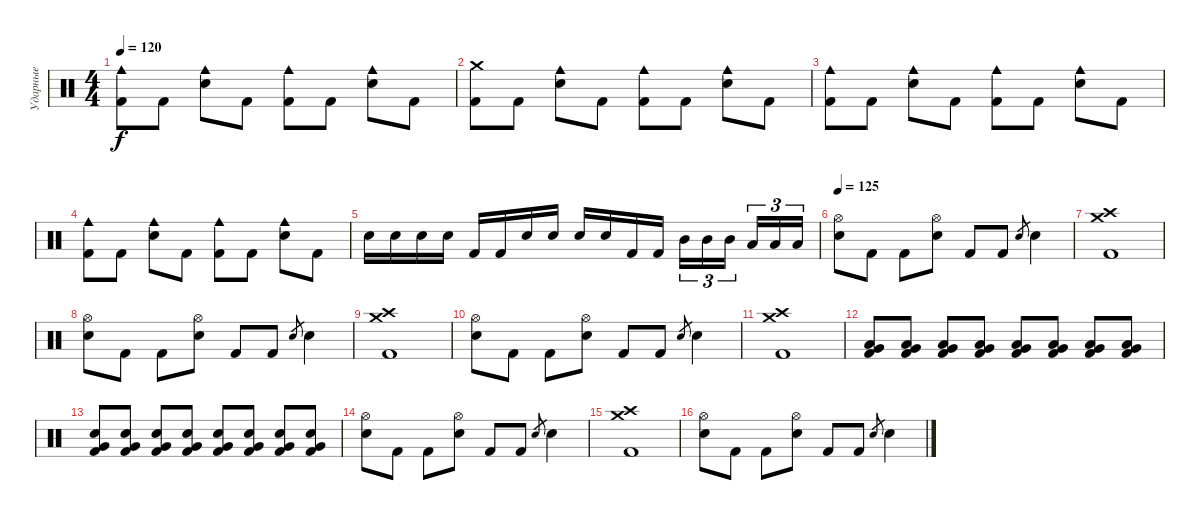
\track ("Ударные" "Ударные") {instrument percussion}
\staff {score}
\articulation defaults
\ts (4 4)
\tempo 120
\clef neutral
\ks c
("Cowbell medium (hit)" "Kick (hit) 2").8{dy f} "Kick (hit) 2".8 ("Cowbell medium (hit)" "Electric Snare (hit)").8 "Kick (hit) 2".8 ("Cowbell medium (hit)" "Kick (hit) 2").8 "Kick (hit) 2".8 ("Cowbell medium (hit)" "Electric Snare (hit)").8 "Kick (hit) 2".8 |
("Crash medium (hit)" "Kick (hit) 2").8 "Kick (hit) 2".8 ("Cowbell medium (hit)" "Electric Snare (hit)").8 "Kick (hit) 2".8 ("Cowbell medium (hit)" "Kick (hit) 2").8 "Kick (hit) 2".8 ("Cowbell medium (hit)" "Electric Snare (hit)").8 "Kick (hit) 2".8 |
("Cowbell medium (hit)" "Kick (hit) 2").8 "Kick (hit) 2".8 ("Cowbell medium (hit)" "Electric Snare (hit)").8 "Kick (hit) 2".8 ("Cowbell medium (hit)" "Kick (hit) 2").8 "Kick (hit) 2".8 ("Cowbell medium (hit)" "Electric Snare (hit)").8 "Kick (hit) 2".8 |
("Cowbell medium (hit)" "Kick (hit) 2").8 "Kick (hit) 2".8 ("Cowbell medium (hit)" "Electric Snare (hit)").8 "Kick (hit) 2".8 ("Cowbell medium (hit)" "Kick (hit) 2").8 "Kick (hit) 2".8 ("Cowbell medium (hit)" "Electric Snare (hit)").8 "Kick (hit) 2".8 |
"Electric Snare (hit)".16 "Electric Snare (hit)".16 "Electric Snare (hit)".16 "Electric Snare (hit)".16 "Kick (hit) 2".16 "Kick (hit) 2".16 "Electric Snare (hit)".16 "Electric Snare (hit)".16 "Electric Snare (hit)".16 "Electric Snare (hit)".16 "Kick (hit) 2".16 "Kick (hit) 2".16 "Mid Tom (hit)".16{tu (3 2)} "Mid Tom (hit)".16{tu (3 2)} "Mid Tom (hit)".16{tu (3 2) beam splitsecondary} "Low Tom (hit)".16{tu (3 2)} "Low Tom (hit)".16{tu (3 2)} "Low Tom (hit)".16{tu (3 2)} |
\tempo 125
("Hi-Hat (open)" "Electric Snare (hit)").8 "Kick (hit) 2".8 "Kick (hit) 2".8 ("Hi-Hat (open)" "Electric Snare (hit)").8 "Kick (hit) 2".8 "Kick (hit) 2".8 "Electric Snare (hit)".8{gr} "Electric Snare (hit)".4 |
("Crash medium (hit)" "Crash high (hit)" "Kick (hit) 2").1 |
("Hi-Hat (open)" "Electric Snare (hit)").8 "Kick (hit) 2".8 "Kick (hit) 2".8 ("Hi-Hat (open)" "Electric Snare (hit)").8 "Kick (hit) 2".8 "Kick (hit) 2".8 "Electric Snare (hit)".8{gr} "Electric Snare (hit)".4 |
("Crash medium (hit)" "Crash high (hit)" "Kick (hit) 2").1 |
("Hi-Hat (open)" "Electric Snare (hit)").8 "Kick (hit) 2".8 "Kick (hit) 2".8 ("Hi-Hat (open)" "Electric Snare (hit)").8 "Kick (hit) 2".8 "Kick (hit) 2".8 "Electric Snare (hit)".8{gr} "Electric Snare (hit)".4 |
("Crash medium (hit)" "Crash high (hit)" "Kick (hit) 2").1 |
("Very Low Tom (hit)" "Low Floor Tom (hit)" "Kick (hit) 2").8 ("Very Low Tom (hit)" "Low Floor Tom (hit)" "Kick (hit) 2").8 ("Very Low Tom (hit)" "Low Floor Tom (hit)" "Kick (hit) 2").8 ("Very Low Tom (hit)" "Low Floor Tom (hit)" "Kick (hit) 2").8 ("Very Low Tom (hit)" "Low Floor Tom (hit)" "Kick (hit) 2").8 ("Very Low Tom (hit)" "Low Floor Tom (hit)" "Kick (hit) 2").8 ("Very Low Tom (hit)" "Low Floor Tom (hit)" "Kick (hit) 2").8 ("Very Low Tom (hit)" "Low Floor Tom (hit)" "Kick (hit) 2").8 |
("Electric Snare (hit)" "Very Low Tom (hit)" "Kick (hit) 2").8 ("Electric Snare (hit)" "Very Low Tom (hit)" "Kick (hit) 2").8 ("Electric Snare (hit)" "Very Low Tom (hit)" "Kick (hit) 2").8 ("Electric Snare (hit)" "Very Low Tom (hit)" "Kick (hit) 2").8 ("Electric Snare (hit)" "Very Low Tom (hit)" "Kick (hit) 2").8 ("Electric Snare (hit)" "Very Low Tom (hit)" "Kick (hit) 2").8 ("Electric Snare (hit)" "Very Low Tom (hit)" "Kick (hit) 2").8 ("Electric Snare (hit)" "Very Low Tom (hit)" "Kick (hit) 2").8 |
("Hi-Hat (open)" "Electric Snare (hit)").8 "Kick (hit) 2".8 "Kick (hit) 2".8 ("Hi-Hat (open)" "Electric Snare (hit)").8 "Kick (hit) 2".8 "Kick (hit) 2".8 "Electric Snare (hit)".8{gr} "Electric Snare (hit)".4 |
("Crash medium (hit)" "Crash high (hit)" "Kick (hit) 2").1 |
("Hi-Hat (open)" "Electric Snare (hit)").8 "Kick (hit) 2".8 "Kick (hit) 2".8 ("Hi-Hat (open)" "Electric Snare (hit)").8 "Kick (hit) 2".8 "Kick (hit) 2".8 "Electric Snare (hit)".8{gr} "Electric Snare (hit)".4
